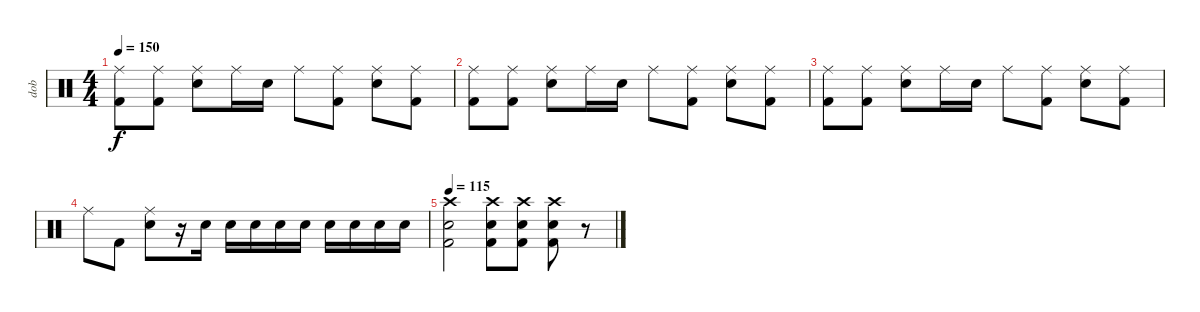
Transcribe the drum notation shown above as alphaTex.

\track ("dob" "dob") {instrument percussion}
\staff {score}
\articulation defaults
\ts (4 4)
\tempo 150
\clef neutral
\ks c
("Ride (middle)" "Kick (hit) 2").8{dy f} ("Ride (middle)" "Kick (hit) 2").8 ("Ride (middle)" "Snare (hit) 2").8 "Ride (middle)".16 "Snare (hit) 2".16 "Ride (middle)".8 ("Ride (middle)" "Kick (hit) 2").8 ("Ride (middle)" "Snare (hit) 2").8 ("Ride (middle)" "Kick (hit) 2").8 |
("Ride (middle)" "Kick (hit) 2").8 ("Ride (middle)" "Kick (hit) 2").8 ("Ride (middle)" "Snare (hit) 2").8 "Ride (middle)".16 "Snare (hit) 2".16 "Ride (middle)".8 ("Ride (middle)" "Kick (hit) 2").8 ("Ride (middle)" "Snare (hit) 2").8 ("Ride (middle)" "Kick (hit) 2").8 |
("Ride (middle)" "Kick (hit) 2").8 ("Ride (middle)" "Kick (hit) 2").8 ("Ride (middle)" "Snare (hit) 2").8 "Ride (middle)".16 "Snare (hit) 2".16 "Ride (middle)".8 ("Ride (middle)" "Kick (hit) 2").8 ("Ride (middle)" "Snare (hit) 2").8 ("Ride (middle)" "Kick (hit) 2").8 |
"Ride (middle)".8 "Kick (hit) 2".8 ("Ride (middle)" "Snare (hit) 2").8 r.16 "Snare (hit) 2".16 "Snare (hit) 2".16 "Snare (hit) 2".16 "Snare (hit) 2".16 "Snare (hit) 2".16 "Snare (hit) 2".16 "Snare (hit) 2".16 "Snare (hit) 2".16 "Snare (hit) 2".16 |
\tempo 115
("Crash high (hit)" "Kick (hit) 2" "Snare (hit) 2").2 ("Crash high (hit)" "Snare (hit) 2" "Kick (hit) 2").8 ("Crash high (hit)" "Snare (hit) 2" "Kick (hit) 2").8 ("Crash high (hit)" "Snare (hit) 2" "Kick (hit) 2").8 r.8
